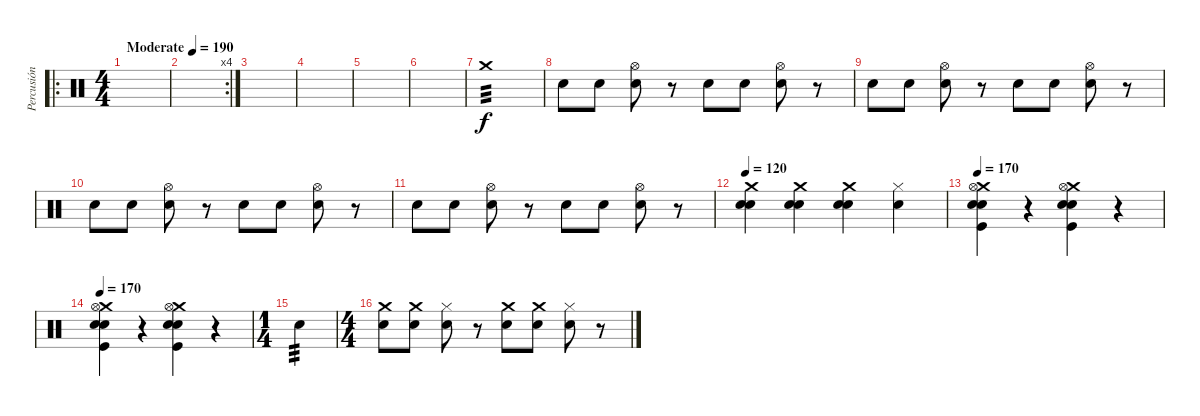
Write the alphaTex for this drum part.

\track ("Percusión" "Percusión") {instrument percussion}
\staff {score}
\articulation defaults
\ro
\ts (4 4)
\tempo (190 "Moderate")
\clef neutral
\ks c
|
\rc 4
|
|
|
|
|
"Crash medium (hit)".1{tp 3} |
"Electric Snare (hit)".8 "Electric Snare (hit)".8 ("Hi-Hat (open)" "Snare (hit) 2").8 r.8 "Electric Snare (hit)".8 "Electric Snare (hit)".8 ("Hi-Hat (open)" "Snare (hit) 2").8 r.8 |
"Electric Snare (hit)".8 "Electric Snare (hit)".8 ("Hi-Hat (open)" "Snare (hit) 2").8 r.8 "Electric Snare (hit)".8 "Electric Snare (hit)".8 ("Hi-Hat (open)" "Snare (hit) 2").8 r.8 |
"Electric Snare (hit)".8 "Electric Snare (hit)".8 ("Hi-Hat (open)" "Snare (hit) 2").8 r.8 "Electric Snare (hit)".8 "Electric Snare (hit)".8 ("Hi-Hat (open)" "Snare (hit) 2").8 r.8 |
"Electric Snare (hit)".8 "Electric Snare (hit)".8 ("Hi-Hat (open)" "Snare (hit) 2").8 r.8 "Electric Snare (hit)".8 "Electric Snare (hit)".8 ("Hi-Hat (open)" "Snare (hit) 2").8 r.8 |
\tempo 120
("Crash medium (hit)" "Electric Snare (hit)" "Snare (hit) 2").4 ("Crash medium (hit)" "Electric Snare (hit)" "Snare (hit) 2").4 ("Crash medium (hit)" "Snare (hit) 2" "Electric Snare (hit)").4 ("Hi-Hat (closed)" "Snare (hit) 2").4 |
\tempo 170
("Crash medium (hit)" "Hi-Hat (open)" "Snare (hit) 2" "Electric Snare (hit)" "Kick (hit)").4 r.4 ("Crash medium (hit)" "Hi-Hat (open)" "Snare (hit) 2" "Electric Snare (hit)" "Kick (hit)").4 r.4 |
\tempo 170
("Crash medium (hit)" "Hi-Hat (open)" "Snare (hit) 2" "Electric Snare (hit)" "Kick (hit)").4 r.4 ("Crash medium (hit)" "Hi-Hat (open)" "Snare (hit) 2" "Electric Snare (hit)" "Kick (hit)").4 r.4 |
\ts (1 4)
"Electric Snare (hit)".4{tp 3} |
\ts (4 4)
("Electric Snare (hit)" "Crash medium (hit)").8{volume 11} ("Electric Snare (hit)" "Crash medium (hit)").8 ("Hi-Hat (closed)" "Snare (hit) 2").8 r.8 ("Electric Snare (hit)" "Crash medium (hit)").8 ("Electric Snare (hit)" "Crash medium (hit)").8 ("Hi-Hat (closed)" "Snare (hit) 2").8 r.8
